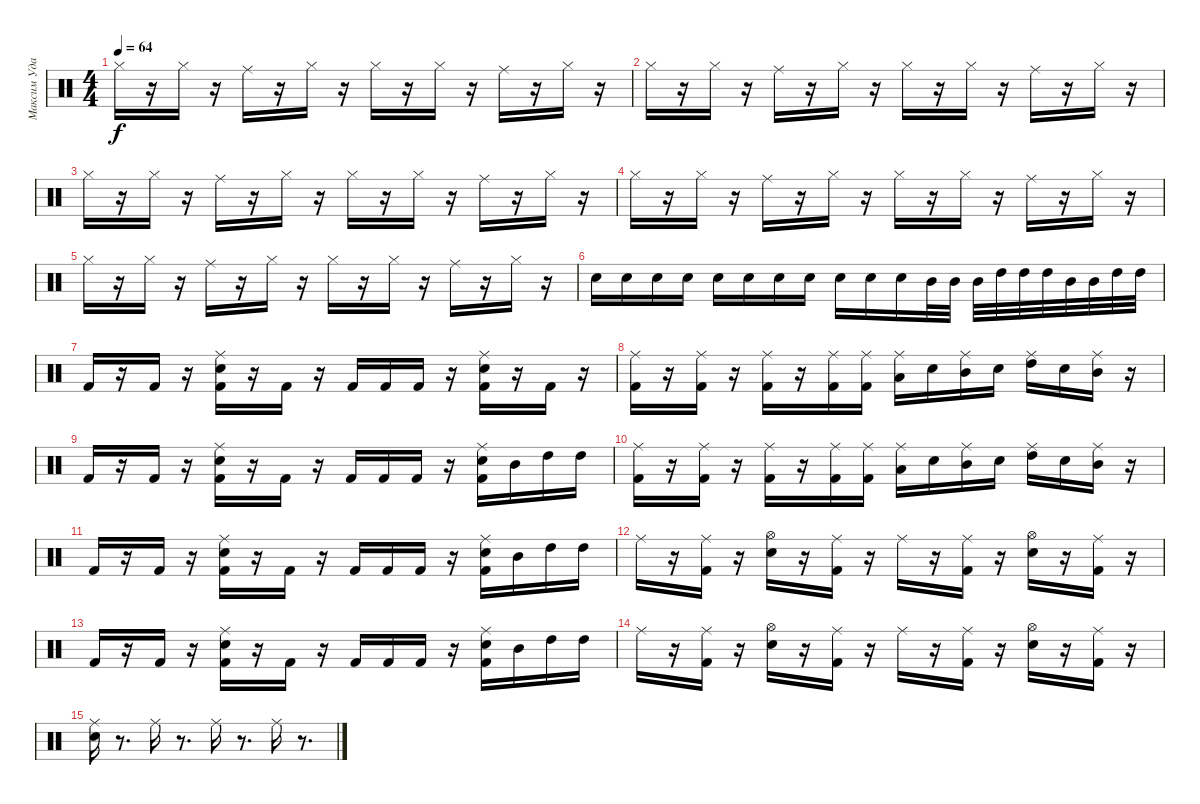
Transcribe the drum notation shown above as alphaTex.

\track ("Максим Удалов" "Максим Уда") {instrument percussion}
\staff {score}
\articulation defaults
\ts (4 4)
\tempo 64
\clef neutral
\ks c "Hi-Hat (closed)".16{dy f}
r.16 "Hi-Hat (closed)".16 r.16 "Ride (middle)".16 r.16 "Hi-Hat (closed)".16 r.16 "Hi-Hat (closed)".16 r.16 "Hi-Hat (closed)".16 r.16 "Ride (middle)".16 r.16 "Hi-Hat (closed)".16 r.16 |
"Hi-Hat (closed)".16 r.16 "Hi-Hat (closed)".16 r.16 "Ride (middle)".16 r.16 "Hi-Hat (closed)".16 r.16 "Hi-Hat (closed)".16 r.16 "Hi-Hat (closed)".16 r.16 "Ride (middle)".16 r.16 "Hi-Hat (closed)".16 r.16 |
"Hi-Hat (closed)".16 r.16 "Hi-Hat (closed)".16 r.16 "Ride (middle)".16 r.16 "Hi-Hat (closed)".16 r.16 "Hi-Hat (closed)".16 r.16 "Hi-Hat (closed)".16 r.16 "Ride (middle)".16 r.16 "Hi-Hat (closed)".16 r.16 |
"Hi-Hat (closed)".16 r.16 "Hi-Hat (closed)".16 r.16 "Ride (middle)".16 r.16 "Hi-Hat (closed)".16 r.16 "Hi-Hat (closed)".16 r.16 "Hi-Hat (closed)".16 r.16 "Ride (middle)".16 r.16 "Hi-Hat (closed)".16 r.16 |
"Hi-Hat (closed)".16 r.16 "Hi-Hat (closed)".16 r.16 "Ride (middle)".16 r.16 "Hi-Hat (closed)".16 r.16 "Hi-Hat (closed)".16 r.16 "Hi-Hat (closed)".16 r.16 "Ride (middle)".16 r.16 "Hi-Hat (closed)".16 r.16 |
"Electric Snare (hit)".16 "Electric Snare (hit)".16 "Electric Snare (hit)".16 "Electric Snare (hit)".16 "Electric Snare (hit)".16 "Electric Snare (hit)".16 "Electric Snare (hit)".16 "Electric Snare (hit)".16 "Electric Snare (hit)".16 "Electric Snare (hit)".16 "Electric Snare (hit)".16 "Mid Tom (hit)".32 "Mid Tom (hit)".32 "Mid Tom (hit)".32 "High Tom (hit)".32 "High Tom (hit)".32 "High Tom (hit)".32 "Mid Tom (hit)".32 "Mid Tom (hit)".32 "High Tom (hit)".32 "High Tom (hit)".32 |
"Kick (hit) 2".16 r.16 "Kick (hit) 2".16 r.16 ("Kick (hit) 2" "Electric Snare (hit)" "Ride (middle)").16 r.16 "Kick (hit) 2".16 r.16 "Kick (hit) 2".16 "Kick (hit) 2".16 "Kick (hit) 2".16 r.16 ("Kick (hit) 2" "Electric Snare (hit)" "Ride (middle)").16 r.16 "Kick (hit) 2".16 r.16 |
("Kick (hit) 2" "Ride (middle)").16 r.16 ("Kick (hit) 2" "Ride (middle)").16 r.16 ("Ride (middle)" "Kick (hit) 2").16 r.16 ("Ride (middle)" "Kick (hit) 2").16 ("Ride (middle)" "Kick (hit) 2").16 ("Ride (middle)" "Low Tom (hit)").16 "Electric Snare (hit)".16 ("Ride (middle)" "Mid Tom (hit)").16 "Electric Snare (hit)".16 ("Ride (middle)" "High Tom (hit)").16 "Electric Snare (hit)".16 ("Mid Tom (hit)" "Ride (middle)").16 r.16 |
"Kick (hit) 2".16 r.16 "Kick (hit) 2".16 r.16 ("Kick (hit) 2" "Electric Snare (hit)" "Ride (middle)").16 r.16 "Kick (hit) 2".16 r.16 "Kick (hit) 2".16 "Kick (hit) 2".16 "Kick (hit) 2".16 r.16 ("Kick (hit) 2" "Electric Snare (hit)" "Ride (middle)").16 "Mid Tom (hit)".16 "High Tom (hit)".16 "High Tom (hit)".16 |
("Kick (hit) 2" "Ride (middle)").16 r.16 ("Kick (hit) 2" "Ride (middle)").16 r.16 ("Ride (middle)" "Kick (hit) 2").16 r.16 ("Ride (middle)" "Kick (hit) 2").16 ("Ride (middle)" "Kick (hit) 2").16 ("Ride (middle)" "Low Tom (hit)").16 "Electric Snare (hit)".16 ("Ride (middle)" "Mid Tom (hit)").16 "Electric Snare (hit)".16 ("Ride (middle)" "High Tom (hit)").16 "Electric Snare (hit)".16 ("Mid Tom (hit)" "Ride (middle)").16 r.16 |
"Kick (hit) 2".16 r.16 "Kick (hit) 2".16 r.16 ("Kick (hit) 2" "Electric Snare (hit)" "Ride (middle)").16 r.16 "Kick (hit) 2".16 r.16 "Kick (hit) 2".16 "Kick (hit) 2".16 "Kick (hit) 2".16 r.16 ("Kick (hit) 2" "Electric Snare (hit)" "Ride (middle)").16 "Mid Tom (hit)".16 "High Tom (hit)".16 "High Tom (hit)".16 |
"Ride (middle)".16 r.16 ("Ride (middle)" "Kick (hit) 2").16 r.16 ("Hi-Hat (open)" "Electric Snare (hit)").16 r.16 ("Ride (middle)" "Kick (hit) 2").16 r.16 "Ride (middle)".16 r.16 ("Ride (middle)" "Kick (hit) 2").16 r.16 ("Hi-Hat (open)" "Electric Snare (hit)").16 r.16 ("Ride (middle)" "Kick (hit) 2").16 r.16 |
"Kick (hit) 2".16 r.16 "Kick (hit) 2".16 r.16 ("Kick (hit) 2" "Electric Snare (hit)" "Ride (middle)").16 r.16 "Kick (hit) 2".16 r.16 "Kick (hit) 2".16 "Kick (hit) 2".16 "Kick (hit) 2".16 r.16 ("Kick (hit) 2" "Electric Snare (hit)" "Ride (middle)").16 "Mid Tom (hit)".16 "High Tom (hit)".16 "High Tom (hit)".16 |
"Ride (middle)".16 r.16 ("Ride (middle)" "Kick (hit) 2").16 r.16 ("Hi-Hat (open)" "Electric Snare (hit)").16 r.16 ("Ride (middle)" "Kick (hit) 2").16 r.16 "Ride (middle)".16 r.16 ("Ride (middle)" "Kick (hit) 2").16 r.16 ("Hi-Hat (open)" "Electric Snare (hit)").16 r.16 ("Ride (middle)" "Kick (hit) 2").16 r.16 |
("Electric Snare (hit)" "Ride (middle)").16 r.8{d} "Ride (middle)".16 r.8{d} "Ride (middle)".16 r.8{d} "Ride (middle)".16 r.8{d}
